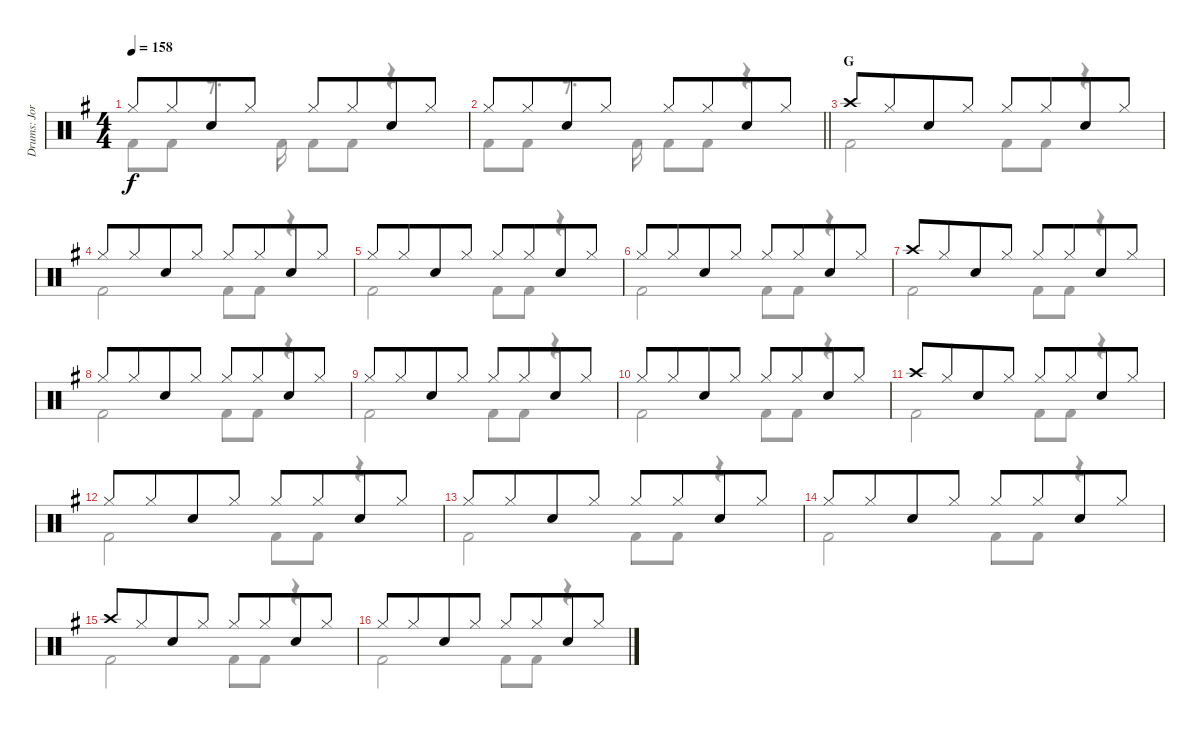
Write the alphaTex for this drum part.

\track ("Drums: Jorg" "Drums: Jor") {instrument percussion}
\staff {score}
\articulation defaults
\voice
\ts (4 4)
\tempo 158
\clef neutral
\ks g "Hi-Hat (closed)".8{dy f} "Hi-Hat (closed)".8{beam merge} "Snare (hit) 2".8 "Hi-Hat (closed)".8 "Hi-Hat (closed)".8 "Hi-Hat (closed)".8{beam merge} "Snare (hit) 2".8 "Hi-Hat (closed)".8
|
\barLineRight lightlight "Hi-Hat (closed)".8 "Hi-Hat (closed)".8{beam merge} "Snare (hit) 2".8 "Hi-Hat (closed)".8 "Hi-Hat (closed)".8 "Hi-Hat (closed)".8{beam merge} "Snare (hit) 2".8 "Hi-Hat (closed)".8
|
\section ("" "G")
"Crash high (hit)".8 "Hi-Hat (closed)".8{beam merge} "Snare (hit) 2".8 "Hi-Hat (closed)".8 "Hi-Hat (closed)".8 "Hi-Hat (closed)".8{beam merge} "Snare (hit) 2".8 "Hi-Hat (closed)".8 |
"Hi-Hat (closed)".8 "Hi-Hat (closed)".8{beam merge} "Snare (hit) 2".8 "Hi-Hat (closed)".8 "Hi-Hat (closed)".8 "Hi-Hat (closed)".8{beam merge} "Snare (hit) 2".8 "Hi-Hat (closed)".8 |
"Hi-Hat (closed)".8 "Hi-Hat (closed)".8{beam merge} "Snare (hit) 2".8 "Hi-Hat (closed)".8 "Hi-Hat (closed)".8 "Hi-Hat (closed)".8{beam merge} "Snare (hit) 2".8 "Hi-Hat (closed)".8 |
"Hi-Hat (closed)".8 "Hi-Hat (closed)".8{beam merge} "Snare (hit) 2".8 "Hi-Hat (closed)".8 "Hi-Hat (closed)".8 "Hi-Hat (closed)".8{beam merge} "Snare (hit) 2".8 "Hi-Hat (closed)".8 |
"Crash high (hit)".8 "Hi-Hat (closed)".8{beam merge} "Snare (hit) 2".8 "Hi-Hat (closed)".8 "Hi-Hat (closed)".8 "Hi-Hat (closed)".8{beam merge} "Snare (hit) 2".8 "Hi-Hat (closed)".8 |
"Hi-Hat (closed)".8 "Hi-Hat (closed)".8{beam merge} "Snare (hit) 2".8 "Hi-Hat (closed)".8 "Hi-Hat (closed)".8 "Hi-Hat (closed)".8{beam merge} "Snare (hit) 2".8 "Hi-Hat (closed)".8 |
"Hi-Hat (closed)".8 "Hi-Hat (closed)".8{beam merge} "Snare (hit) 2".8 "Hi-Hat (closed)".8 "Hi-Hat (closed)".8 "Hi-Hat (closed)".8{beam merge} "Snare (hit) 2".8 "Hi-Hat (closed)".8 |
"Hi-Hat (closed)".8 "Hi-Hat (closed)".8{beam merge} "Snare (hit) 2".8 "Hi-Hat (closed)".8 "Hi-Hat (closed)".8 "Hi-Hat (closed)".8{beam merge} "Snare (hit) 2".8 "Hi-Hat (closed)".8 |
"Crash high (hit)".8 "Hi-Hat (closed)".8{beam merge} "Snare (hit) 2".8 "Hi-Hat (closed)".8 "Hi-Hat (closed)".8 "Hi-Hat (closed)".8{beam merge} "Snare (hit) 2".8 "Hi-Hat (closed)".8 |
"Hi-Hat (closed)".8 "Hi-Hat (closed)".8{beam merge} "Snare (hit) 2".8 "Hi-Hat (closed)".8 "Hi-Hat (closed)".8 "Hi-Hat (closed)".8{beam merge} "Snare (hit) 2".8 "Hi-Hat (closed)".8 |
"Hi-Hat (closed)".8 "Hi-Hat (closed)".8{beam merge} "Snare (hit) 2".8 "Hi-Hat (closed)".8 "Hi-Hat (closed)".8 "Hi-Hat (closed)".8{beam merge} "Snare (hit) 2".8 "Hi-Hat (closed)".8 |
"Hi-Hat (closed)".8 "Hi-Hat (closed)".8{beam merge} "Snare (hit) 2".8 "Hi-Hat (closed)".8 "Hi-Hat (closed)".8 "Hi-Hat (closed)".8{beam merge} "Snare (hit) 2".8 "Hi-Hat (closed)".8 |
"Crash high (hit)".8 "Hi-Hat (closed)".8{beam merge} "Snare (hit) 2".8 "Hi-Hat (closed)".8 "Hi-Hat (closed)".8 "Hi-Hat (closed)".8{beam merge} "Snare (hit) 2".8 "Hi-Hat (closed)".8 |
"Hi-Hat (closed)".8 "Hi-Hat (closed)".8{beam merge} "Snare (hit) 2".8 "Hi-Hat (closed)".8 "Hi-Hat (closed)".8 "Hi-Hat (closed)".8{beam merge} "Snare (hit) 2".8 "Hi-Hat (closed)".8
\voice
\clef neutral
\ottava regular
\simile none
\ks g "Kick (hit) 2".8{dy f} "Kick (hit) 2".8
r.8{d} "Kick (hit) 2".16 "Kick (hit) 2".8 "Kick (hit) 2".8 r.4 |
\barLineRight lightlight "Kick (hit) 2".8 "Kick (hit) 2".8
r.8{d} "Kick (hit) 2".16 "Kick (hit) 2".8 "Kick (hit) 2".8 r.4 |
"Kick (hit) 2".2 "Kick (hit) 2".8 "Kick (hit) 2".8 r.4 |
"Kick (hit) 2".2 "Kick (hit) 2".8 "Kick (hit) 2".8 r.4 |
"Kick (hit) 2".2 "Kick (hit) 2".8 "Kick (hit) 2".8 r.4 |
"Kick (hit) 2".2 "Kick (hit) 2".8 "Kick (hit) 2".8 r.4 |
"Kick (hit) 2".2 "Kick (hit) 2".8 "Kick (hit) 2".8 r.4 |
"Kick (hit) 2".2 "Kick (hit) 2".8 "Kick (hit) 2".8 r.4 |
"Kick (hit) 2".2 "Kick (hit) 2".8 "Kick (hit) 2".8 r.4 |
"Kick (hit) 2".2 "Kick (hit) 2".8 "Kick (hit) 2".8 r.4 |
"Kick (hit) 2".2 "Kick (hit) 2".8 "Kick (hit) 2".8 r.4 |
"Kick (hit) 2".2 "Kick (hit) 2".8 "Kick (hit) 2".8 r.4 |
"Kick (hit) 2".2 "Kick (hit) 2".8 "Kick (hit) 2".8 r.4 |
"Kick (hit) 2".2 "Kick (hit) 2".8 "Kick (hit) 2".8 r.4 |
"Kick (hit) 2".2 "Kick (hit) 2".8 "Kick (hit) 2".8 r.4 |
"Kick (hit) 2".2 "Kick (hit) 2".8 "Kick (hit) 2".8 r.4
